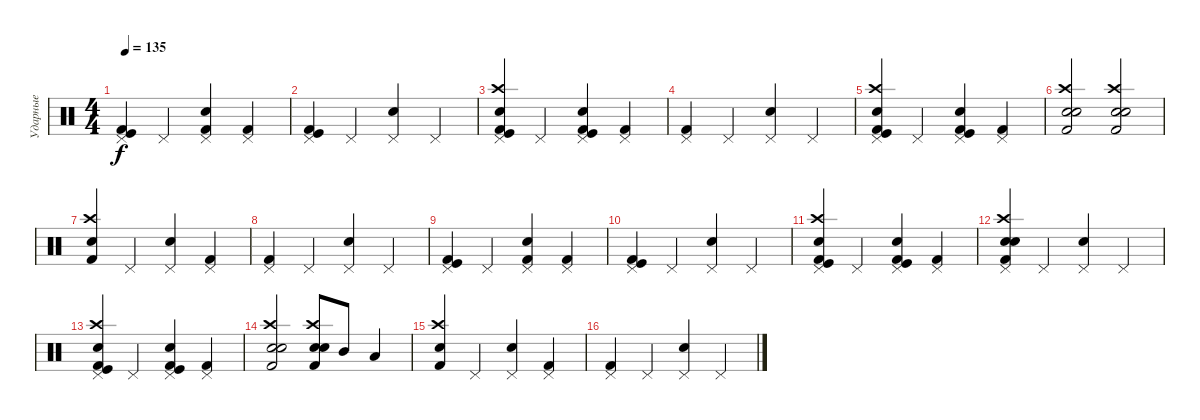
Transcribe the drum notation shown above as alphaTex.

\track ("Ударные" "Ударные") {instrument percussion}
\staff {score}
\articulation defaults
\ts (4 4)
\tempo 135
\clef neutral
\ks c
("Pedal Hi-Hat (hit)" "Kick (hit) 2" "Kick (hit)").4{dy f} "Pedal Hi-Hat (hit)".4 ("Pedal Hi-Hat (hit)" "Electric Snare (hit)" "Kick (hit) 2").4 ("Pedal Hi-Hat (hit)" "Kick (hit) 2").4 |
("Kick (hit) 2" "Kick (hit)" "Pedal Hi-Hat (hit)").4 "Pedal Hi-Hat (hit)".4 ("Electric Snare (hit)" "Pedal Hi-Hat (hit)").4 "Pedal Hi-Hat (hit)".4 |
("Pedal Hi-Hat (hit)" "Kick (hit)" "Crash high (hit)" "Snare (hit) 2" "Kick (hit) 2").4 "Pedal Hi-Hat (hit)".4 ("Kick (hit)" "Pedal Hi-Hat (hit)" "Electric Snare (hit)" "Kick (hit) 2").4 ("Pedal Hi-Hat (hit)" "Kick (hit) 2").4 |
("Pedal Hi-Hat (hit)" "Kick (hit) 2").4 "Pedal Hi-Hat (hit)".4 ("Pedal Hi-Hat (hit)" "Electric Snare (hit)").4 "Pedal Hi-Hat (hit)".4 |
("Pedal Hi-Hat (hit)" "Kick (hit)" "Crash high (hit)" "Snare (hit) 2" "Kick (hit) 2").4 "Pedal Hi-Hat (hit)".4 ("Kick (hit)" "Pedal Hi-Hat (hit)" "Electric Snare (hit)" "Kick (hit) 2").4 ("Pedal Hi-Hat (hit)" "Kick (hit) 2").4 |
("Kick (hit) 2" "Snare (hit) 2" "Crash high (hit)" "Electric Snare (hit)").2 ("Kick (hit) 2" "Snare (hit) 2" "Crash high (hit)" "Electric Snare (hit)").2 |
("Kick (hit) 2" "Snare (hit) 2" "Crash high (hit)").4 "Pedal Hi-Hat (hit)".4 ("Electric Snare (hit)" "Pedal Hi-Hat (hit)").4 ("Kick (hit) 2" "Pedal Hi-Hat (hit)").4 |
("Pedal Hi-Hat (hit)" "Kick (hit) 2").4 "Pedal Hi-Hat (hit)".4 ("Pedal Hi-Hat (hit)" "Electric Snare (hit)").4 "Pedal Hi-Hat (hit)".4 |
("Pedal Hi-Hat (hit)" "Kick (hit) 2" "Kick (hit)").4 "Pedal Hi-Hat (hit)".4 ("Pedal Hi-Hat (hit)" "Electric Snare (hit)" "Kick (hit) 2").4 ("Pedal Hi-Hat (hit)" "Kick (hit) 2").4 |
("Kick (hit) 2" "Kick (hit)" "Pedal Hi-Hat (hit)").4 "Pedal Hi-Hat (hit)".4 ("Electric Snare (hit)" "Pedal Hi-Hat (hit)").4 "Pedal Hi-Hat (hit)".4 |
("Pedal Hi-Hat (hit)" "Kick (hit)" "Crash high (hit)" "Snare (hit) 2" "Kick (hit) 2").4 "Pedal Hi-Hat (hit)".4 ("Kick (hit)" "Pedal Hi-Hat (hit)" "Electric Snare (hit)" "Kick (hit) 2").4 ("Pedal Hi-Hat (hit)" "Kick (hit) 2").4 |
("Snare (hit) 2" "Pedal Hi-Hat (hit)" "Kick (hit) 2" "Crash high (hit)" "Electric Snare (hit)").4 "Pedal Hi-Hat (hit)".4 ("Pedal Hi-Hat (hit)" "Electric Snare (hit)").4 "Pedal Hi-Hat (hit)".4 |
("Pedal Hi-Hat (hit)" "Kick (hit)" "Crash high (hit)" "Snare (hit) 2" "Kick (hit) 2").4 "Pedal Hi-Hat (hit)".4 ("Pedal Hi-Hat (hit)" "Kick (hit)" "Snare (hit) 2" "Kick (hit) 2").4 ("Pedal Hi-Hat (hit)" "Kick (hit) 2").4 |
("Kick (hit) 2" "Snare (hit) 2" "Crash high (hit)" "Electric Snare (hit)").2 ("Kick (hit) 2" "Snare (hit) 2" "Crash high (hit)" "Electric Snare (hit)").8 "Mid Tom (hit)".8 "Low Tom (hit)".4 |
("Kick (hit) 2" "Snare (hit) 2" "Crash high (hit)").4 "Pedal Hi-Hat (hit)".4 ("Electric Snare (hit)" "Pedal Hi-Hat (hit)").4 ("Kick (hit) 2" "Pedal Hi-Hat (hit)").4 |
("Pedal Hi-Hat (hit)" "Kick (hit) 2").4 "Pedal Hi-Hat (hit)".4 ("Pedal Hi-Hat (hit)" "Electric Snare (hit)").4 "Pedal Hi-Hat (hit)".4
